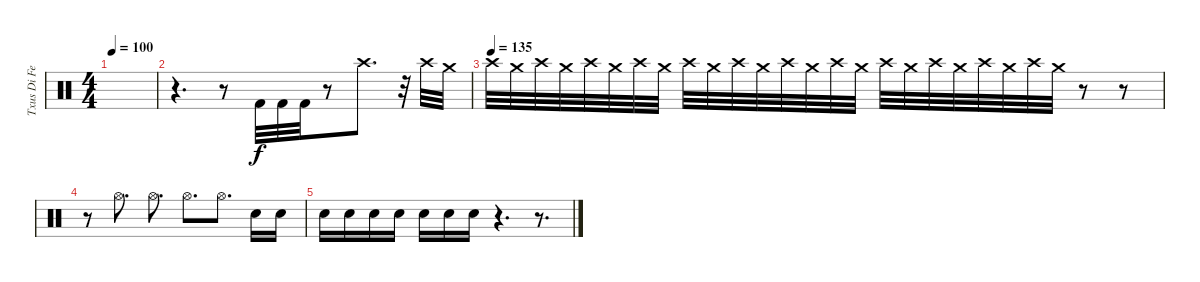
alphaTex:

\track ("Txus Di Fellatio" "Txus Di Fe") {instrument percussion}
\staff {score}
\articulation defaults
\ts (4 4)
\tempo 100
\clef neutral
\ks c
|
r.4{d} r.8 "Kick (hit) 2".32 "Kick (hit) 2".32 "Kick (hit) 2".32 r.8 "Crash high (hit)".8{d} r.32{volume 0} "Crash high (hit)".32{volume 13} "Crash medium (hit)".32 |
\tempo (135)
"Crash high (hit)".32 "Crash medium (hit)".32 "Crash high (hit)".32 "Crash medium (hit)".32 "Crash high (hit)".32 "Crash medium (hit)".32 "Crash high (hit)".32 "Crash medium (hit)".32 "Crash high (hit)".32 "Crash medium (hit)".32 "Crash high (hit)".32 "Crash medium (hit)".32 "Crash high (hit)".32 "Crash medium (hit)".32 "Crash high (hit)".32 "Crash medium (hit)".32 "Crash high (hit)".32 "Crash medium (hit)".32 "Crash high (hit)".32 "Crash medium (hit)".32 "Crash high (hit)".32 "Crash medium (hit)".32 "Crash high (hit)".32 "Crash medium (hit)".32 r.8 r.8 |
r.8 "Hi-Hat (open)".8{d} "Hi-Hat (open)".8{d} "Hi-Hat (open)".8{d} "Hi-Hat (open)".8{d} "Snare (hit) 2".16 "Snare (hit) 2".16 |
"Snare (hit) 2".16 "Snare (hit) 2".16 "Snare (hit) 2".16 "Snare (hit) 2".16 "Snare (hit) 2".16 "Snare (hit) 2".16 "Snare (hit) 2".16 r.4{d} r.8{d}
